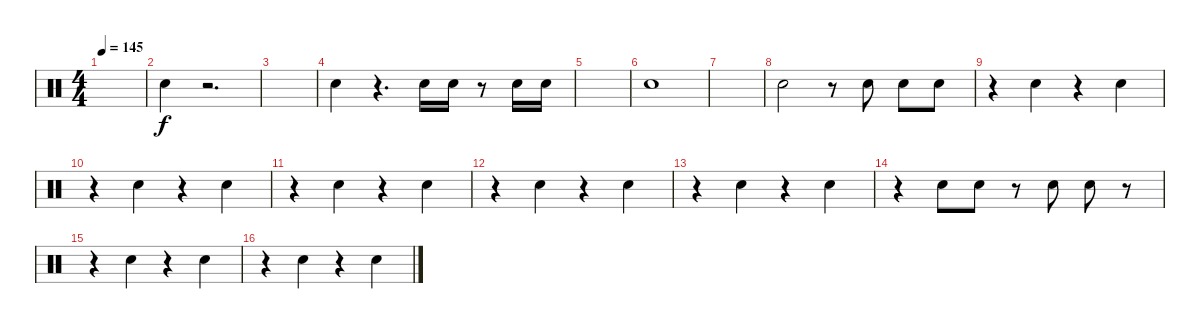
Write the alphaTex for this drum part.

\track "" {instrument percussion}
\staff {score}
\articulation defaults
\ts (4 4)
\tempo 145
\clef neutral
\ks c
|
"Electric Snare (hit)".4 r.2{d} |
|
"Electric Snare (hit)".4 r.4{d} "Electric Snare (hit)".16 "Electric Snare (hit)".16 r.8 "Electric Snare (hit)".16 "Electric Snare (hit)".16 |
|
"Electric Snare (hit)".1 |
|
"Electric Snare (hit)".2 r.8 "Electric Snare (hit)".8 "Electric Snare (hit)".8 "Electric Snare (hit)".8 |
r.4 "Electric Snare (hit)".4 r.4 "Electric Snare (hit)".4 |
r.4 "Electric Snare (hit)".4 r.4 "Electric Snare (hit)".4 |
r.4 "Electric Snare (hit)".4 r.4 "Electric Snare (hit)".4 |
r.4 "Electric Snare (hit)".4 r.4 "Electric Snare (hit)".4 |
r.4 "Electric Snare (hit)".4 r.4 "Electric Snare (hit)".4 |
r.4 "Electric Snare (hit)".8 "Electric Snare (hit)".8 r.8 "Electric Snare (hit)".8 "Electric Snare (hit)".8 r.8 |
r.4 "Electric Snare (hit)".4 r.4 "Electric Snare (hit)".4 |
r.4 "Electric Snare (hit)".4 r.4 "Electric Snare (hit)".4
